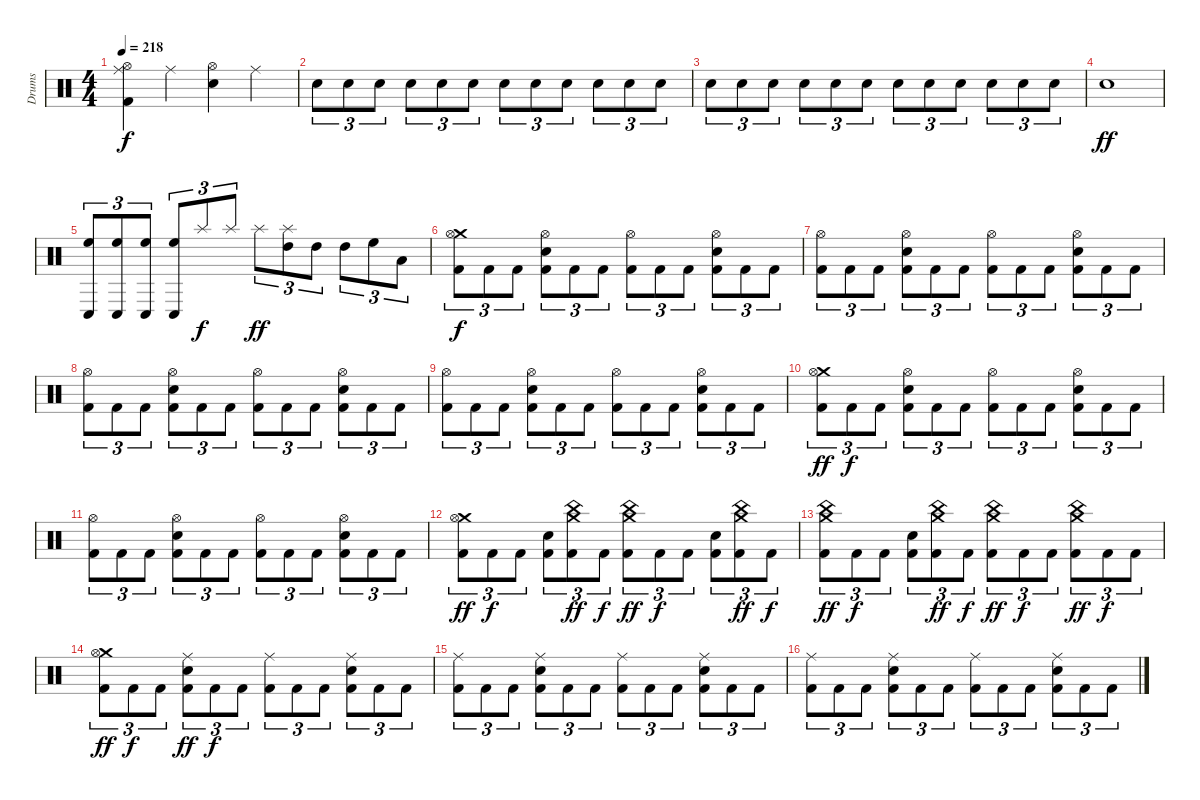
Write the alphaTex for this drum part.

\track ("Drums" "Drums") {instrument percussion}
\staff {score}
\articulation defaults
\ts (4 4)
\tempo 218
\clef neutral
\ks c
("Ride (middle)" "Hi-Hat (open)" "Kick (hit) 2").4{dy f} "Ride (middle)".4 ("Hi-Hat (open)" "Electric Snare (hit)").4 "Ride (middle)".4 |
"Electric Snare (hit)".8{tu (3 2)} "Electric Snare (hit)".8{tu (3 2)} "Electric Snare (hit)".8{tu (3 2)} "Electric Snare (hit)".8{tu (3 2)} "Electric Snare (hit)".8{tu (3 2)} "Electric Snare (hit)".8{tu (3 2)} "Electric Snare (hit)".8{tu (3 2)} "Electric Snare (hit)".8{tu (3 2)} "Electric Snare (hit)".8{tu (3 2)} "Electric Snare (hit)".8{tu (3 2)} "Electric Snare (hit)".8{tu (3 2)} "Electric Snare (hit)".8{tu (3 2)} |
"Electric Snare (hit)".8{tu (3 2)} "Electric Snare (hit)".8{tu (3 2)} "Electric Snare (hit)".8{tu (3 2)} "Electric Snare (hit)".8{tu (3 2)} "Electric Snare (hit)".8{tu (3 2)} "Electric Snare (hit)".8{tu (3 2)} "Electric Snare (hit)".8{tu (3 2)} "Electric Snare (hit)".8{tu (3 2)} "Electric Snare (hit)".8{tu (3 2)} "Electric Snare (hit)".8{tu (3 2)} "Electric Snare (hit)".8{tu (3 2)} "Electric Snare (hit)".8{tu (3 2)} |
"Electric Snare (hit)".1{dy ff} |
("Conga low (hit)" "High Floor Tom (hit)").8{tu (3 2)} ("Conga low (hit)" "High Floor Tom (hit)").8{tu (3 2)} ("Conga low (hit)" "High Floor Tom (hit)").8{tu (3 2)} ("Conga low (hit)" "High Floor Tom (hit)").8{tu (3 2)} "Splash (hit)".8{tu (3 2) dy f} "Splash (hit)".8{tu (3 2)} "Splash (hit)".8{tu (3 2) dy ff} ("Splash (hit)" "High Tom (hit)").8{tu (3 2)} "High Tom (hit)".8{tu (3 2)} "High Tom (hit)".8{tu (3 2)} "High Floor Tom (hit)".8{tu (3 2)} "Low Tom (hit)".8{tu (3 2)} |
("Crash medium (hit)" "Hi-Hat (open)" "Kick (hit) 2").8{tu (3 2) dy f} "Kick (hit) 2".8{tu (3 2)} "Kick (hit) 2".8{tu (3 2)} ("Hi-Hat (open)" "Electric Snare (hit)" "Kick (hit) 2").8{tu (3 2)} "Kick (hit) 2".8{tu (3 2)} "Kick (hit) 2".8{tu (3 2)} ("Hi-Hat (open)" "Kick (hit) 2").8{tu (3 2)} "Kick (hit) 2".8{tu (3 2)} "Kick (hit) 2".8{tu (3 2)} ("Hi-Hat (open)" "Electric Snare (hit)" "Kick (hit) 2").8{tu (3 2)} "Kick (hit) 2".8{tu (3 2)} "Kick (hit) 2".8{tu (3 2)} |
("Hi-Hat (open)" "Kick (hit) 2").8{tu (3 2)} "Kick (hit) 2".8{tu (3 2)} "Kick (hit) 2".8{tu (3 2)} ("Hi-Hat (open)" "Electric Snare (hit)" "Kick (hit) 2").8{tu (3 2)} "Kick (hit) 2".8{tu (3 2)} "Kick (hit) 2".8{tu (3 2)} ("Hi-Hat (open)" "Kick (hit) 2").8{tu (3 2)} "Kick (hit) 2".8{tu (3 2)} "Kick (hit) 2".8{tu (3 2)} ("Hi-Hat (open)" "Electric Snare (hit)" "Kick (hit) 2").8{tu (3 2)} "Kick (hit) 2".8{tu (3 2)} "Kick (hit) 2".8{tu (3 2)} |
("Hi-Hat (open)" "Kick (hit) 2").8{tu (3 2)} "Kick (hit) 2".8{tu (3 2)} "Kick (hit) 2".8{tu (3 2)} ("Hi-Hat (open)" "Electric Snare (hit)" "Kick (hit) 2").8{tu (3 2)} "Kick (hit) 2".8{tu (3 2)} "Kick (hit) 2".8{tu (3 2)} ("Hi-Hat (open)" "Kick (hit) 2").8{tu (3 2)} "Kick (hit) 2".8{tu (3 2)} "Kick (hit) 2".8{tu (3 2)} ("Hi-Hat (open)" "Electric Snare (hit)" "Kick (hit) 2").8{tu (3 2)} "Kick (hit) 2".8{tu (3 2)} "Kick (hit) 2".8{tu (3 2)} |
("Hi-Hat (open)" "Kick (hit) 2").8{tu (3 2)} "Kick (hit) 2".8{tu (3 2)} "Kick (hit) 2".8{tu (3 2)} ("Hi-Hat (open)" "Electric Snare (hit)" "Kick (hit) 2").8{tu (3 2)} "Kick (hit) 2".8{tu (3 2)} "Kick (hit) 2".8{tu (3 2)} ("Hi-Hat (open)" "Kick (hit) 2").8{tu (3 2)} "Kick (hit) 2".8{tu (3 2)} "Kick (hit) 2".8{tu (3 2)} ("Hi-Hat (open)" "Electric Snare (hit)" "Kick (hit) 2").8{tu (3 2)} "Kick (hit) 2".8{tu (3 2)} "Kick (hit) 2".8{tu (3 2)} |
("Crash medium (hit)" "Hi-Hat (open)" "Kick (hit) 2").8{tu (3 2) dy ff} "Kick (hit) 2".8{tu (3 2) dy f} "Kick (hit) 2".8{tu (3 2)} ("Hi-Hat (open)" "Electric Snare (hit)" "Kick (hit) 2").8{tu (3 2)} "Kick (hit) 2".8{tu (3 2)} "Kick (hit) 2".8{tu (3 2)} ("Hi-Hat (open)" "Kick (hit) 2").8{tu (3 2)} "Kick (hit) 2".8{tu (3 2)} "Kick (hit) 2".8{tu (3 2)} ("Hi-Hat (open)" "Electric Snare (hit)" "Kick (hit) 2").8{tu (3 2)} "Kick (hit) 2".8{tu (3 2)} "Kick (hit) 2".8{tu (3 2)} |
("Hi-Hat (open)" "Kick (hit) 2").8{tu (3 2)} "Kick (hit) 2".8{tu (3 2)} "Kick (hit) 2".8{tu (3 2)} ("Hi-Hat (open)" "Electric Snare (hit)" "Kick (hit) 2").8{tu (3 2)} "Kick (hit) 2".8{tu (3 2)} "Kick (hit) 2".8{tu (3 2)} ("Hi-Hat (open)" "Kick (hit) 2").8{tu (3 2)} "Kick (hit) 2".8{tu (3 2)} "Kick (hit) 2".8{tu (3 2)} ("Hi-Hat (open)" "Electric Snare (hit)" "Kick (hit) 2").8{tu (3 2)} "Kick (hit) 2".8{tu (3 2)} "Kick (hit) 2".8{tu (3 2)} |
("Crash medium (hit)" "Hi-Hat (open)" "Kick (hit) 2").8{tu (3 2) dy ff} "Kick (hit) 2".8{tu (3 2) dy f} "Kick (hit) 2".8{tu (3 2)} ("Electric Snare (hit)" "Kick (hit) 2").8{tu (3 2)} ("China (hit)" "Crash medium (hit)" "Kick (hit) 2").8{tu (3 2) dy ff} "Kick (hit) 2".8{tu (3 2) dy f} ("China (hit)" "Crash medium (hit)" "Kick (hit) 2").8{tu (3 2) dy ff} "Kick (hit) 2".8{tu (3 2) dy f} "Kick (hit) 2".8{tu (3 2)} ("Electric Snare (hit)" "Kick (hit) 2").8{tu (3 2)} ("China (hit)" "Crash medium (hit)" "Kick (hit) 2").8{tu (3 2) dy ff} "Kick (hit) 2".8{tu (3 2) dy f} |
("China (hit)" "Crash medium (hit)" "Kick (hit) 2").8{tu (3 2) dy ff} "Kick (hit) 2".8{tu (3 2) dy f} "Kick (hit) 2".8{tu (3 2)} ("Electric Snare (hit)" "Kick (hit) 2").8{tu (3 2)} ("China (hit)" "Crash medium (hit)" "Kick (hit) 2").8{tu (3 2) dy ff} "Kick (hit) 2".8{tu (3 2) dy f} ("China (hit)" "Crash medium (hit)" "Kick (hit) 2").8{tu (3 2) dy ff} "Kick (hit) 2".8{tu (3 2) dy f} "Kick (hit) 2".8{tu (3 2)} ("China (hit)" "Crash medium (hit)" "Kick (hit) 2").8{tu (3 2) dy ff} "Kick (hit) 2".8{tu (3 2) dy f} "Kick (hit) 2".8{tu (3 2)} |
("Crash medium (hit)" "Hi-Hat (open)" "Kick (hit) 2").8{tu (3 2) dy ff} "Kick (hit) 2".8{tu (3 2) dy f} "Kick (hit) 2".8{tu (3 2)} ("Ride (middle)" "Electric Snare (hit)" "Kick (hit) 2").8{tu (3 2) dy ff} "Kick (hit) 2".8{tu (3 2) dy f} "Kick (hit) 2".8{tu (3 2)} ("Ride (middle)" "Kick (hit) 2").8{tu (3 2)} "Kick (hit) 2".8{tu (3 2)} "Kick (hit) 2".8{tu (3 2)} ("Ride (middle)" "Electric Snare (hit)" "Kick (hit) 2").8{tu (3 2)} "Kick (hit) 2".8{tu (3 2)} "Kick (hit) 2".8{tu (3 2)} |
("Ride (middle)" "Kick (hit) 2").8{tu (3 2)} "Kick (hit) 2".8{tu (3 2)} "Kick (hit) 2".8{tu (3 2)} ("Ride (middle)" "Electric Snare (hit)" "Kick (hit) 2").8{tu (3 2)} "Kick (hit) 2".8{tu (3 2)} "Kick (hit) 2".8{tu (3 2)} ("Ride (middle)" "Kick (hit) 2").8{tu (3 2)} "Kick (hit) 2".8{tu (3 2)} "Kick (hit) 2".8{tu (3 2)} ("Ride (middle)" "Electric Snare (hit)" "Kick (hit) 2").8{tu (3 2)} "Kick (hit) 2".8{tu (3 2)} "Kick (hit) 2".8{tu (3 2)} |
("Ride (middle)" "Kick (hit) 2").8{tu (3 2)} "Kick (hit) 2".8{tu (3 2)} "Kick (hit) 2".8{tu (3 2)} ("Ride (middle)" "Electric Snare (hit)" "Kick (hit) 2").8{tu (3 2)} "Kick (hit) 2".8{tu (3 2)} "Kick (hit) 2".8{tu (3 2)} ("Ride (middle)" "Kick (hit) 2").8{tu (3 2)} "Kick (hit) 2".8{tu (3 2)} "Kick (hit) 2".8{tu (3 2)} ("Ride (middle)" "Electric Snare (hit)" "Kick (hit) 2").8{tu (3 2)} "Kick (hit) 2".8{tu (3 2)} "Kick (hit) 2".8{tu (3 2)}
